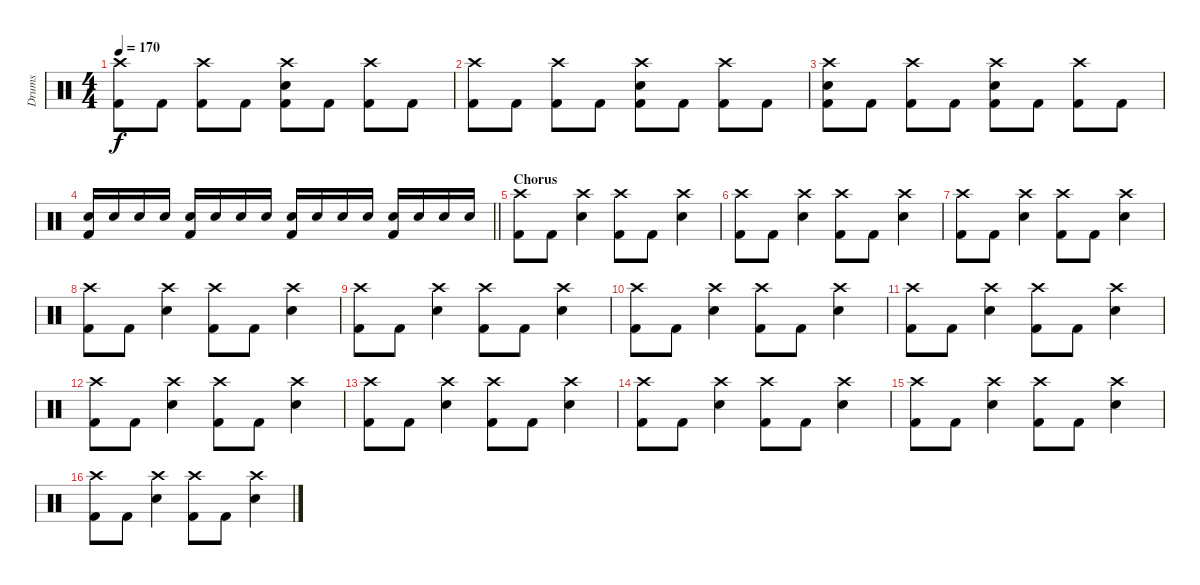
\track ("Drums" "Drums") {instrument percussion}
\staff {score}
\articulation defaults
\ts (4 4)
\tempo 170
\clef neutral
\ks c
("Crash high (hit)" "Kick (hit) 2").8{dy f} "Kick (hit) 2".8 ("Crash high (hit)" "Kick (hit) 2").8 "Kick (hit) 2".8 ("Electric Snare (hit)" "Crash high (hit)" "Kick (hit) 2").8 "Kick (hit) 2".8 ("Crash high (hit)" "Kick (hit) 2").8 "Kick (hit) 2".8 |
("Crash high (hit)" "Kick (hit) 2").8 "Kick (hit) 2".8 ("Crash high (hit)" "Kick (hit) 2").8 "Kick (hit) 2".8 ("Electric Snare (hit)" "Crash high (hit)" "Kick (hit) 2").8 "Kick (hit) 2".8 ("Crash high (hit)" "Kick (hit) 2").8 "Kick (hit) 2".8 |
("Electric Snare (hit)" "Crash high (hit)" "Kick (hit) 2").8 "Kick (hit) 2".8 ("Crash high (hit)" "Kick (hit) 2").8 "Kick (hit) 2".8 ("Electric Snare (hit)" "Crash high (hit)" "Kick (hit) 2").8 "Kick (hit) 2".8 ("Crash high (hit)" "Kick (hit) 2").8 "Kick (hit) 2".8 |
\barLineRight lightlight
("Electric Snare (hit)" "Kick (hit) 2").16 "Electric Snare (hit)".16 "Electric Snare (hit)".16 "Electric Snare (hit)".16 ("Electric Snare (hit)" "Kick (hit) 2").16 "Electric Snare (hit)".16 "Electric Snare (hit)".16 "Electric Snare (hit)".16 ("Electric Snare (hit)" "Kick (hit) 2").16 "Electric Snare (hit)".16 "Electric Snare (hit)".16 "Electric Snare (hit)".16 ("Electric Snare (hit)" "Kick (hit) 2").16 "Electric Snare (hit)".16 "Electric Snare (hit)".16 "Electric Snare (hit)".16 |
\section ("" "Chorus")
("Crash high (hit)" "Kick (hit) 2").8 "Kick (hit) 2".8 ("Electric Snare (hit)" "Crash high (hit)").4 ("Crash high (hit)" "Kick (hit) 2").8 "Kick (hit) 2".8 ("Electric Snare (hit)" "Crash high (hit)").4 |
("Crash high (hit)" "Kick (hit) 2").8 "Kick (hit) 2".8 ("Electric Snare (hit)" "Crash high (hit)").4 ("Crash high (hit)" "Kick (hit) 2").8 "Kick (hit) 2".8 ("Electric Snare (hit)" "Crash high (hit)").4 |
("Crash high (hit)" "Kick (hit) 2").8 "Kick (hit) 2".8 ("Electric Snare (hit)" "Crash high (hit)").4 ("Crash high (hit)" "Kick (hit) 2").8 "Kick (hit) 2".8 ("Electric Snare (hit)" "Crash high (hit)").4 |
("Crash high (hit)" "Kick (hit) 2").8 "Kick (hit) 2".8 ("Electric Snare (hit)" "Crash high (hit)").4 ("Crash high (hit)" "Kick (hit) 2").8 "Kick (hit) 2".8 ("Electric Snare (hit)" "Crash high (hit)").4 |
("Crash high (hit)" "Kick (hit) 2").8 "Kick (hit) 2".8 ("Electric Snare (hit)" "Crash high (hit)").4 ("Crash high (hit)" "Kick (hit) 2").8 "Kick (hit) 2".8 ("Electric Snare (hit)" "Crash high (hit)").4 |
("Crash high (hit)" "Kick (hit) 2").8 "Kick (hit) 2".8 ("Electric Snare (hit)" "Crash high (hit)").4 ("Crash high (hit)" "Kick (hit) 2").8 "Kick (hit) 2".8 ("Electric Snare (hit)" "Crash high (hit)").4 |
("Crash high (hit)" "Kick (hit) 2").8 "Kick (hit) 2".8 ("Electric Snare (hit)" "Crash high (hit)").4 ("Crash high (hit)" "Kick (hit) 2").8 "Kick (hit) 2".8 ("Electric Snare (hit)" "Crash high (hit)").4 |
("Crash high (hit)" "Kick (hit) 2").8 "Kick (hit) 2".8 ("Electric Snare (hit)" "Crash high (hit)").4 ("Crash high (hit)" "Kick (hit) 2").8 "Kick (hit) 2".8 ("Electric Snare (hit)" "Crash high (hit)").4 |
("Crash high (hit)" "Kick (hit) 2").8 "Kick (hit) 2".8 ("Electric Snare (hit)" "Crash high (hit)").4 ("Crash high (hit)" "Kick (hit) 2").8 "Kick (hit) 2".8 ("Electric Snare (hit)" "Crash high (hit)").4 |
("Crash high (hit)" "Kick (hit) 2").8 "Kick (hit) 2".8 ("Electric Snare (hit)" "Crash high (hit)").4 ("Crash high (hit)" "Kick (hit) 2").8 "Kick (hit) 2".8 ("Electric Snare (hit)" "Crash high (hit)").4 |
("Crash high (hit)" "Kick (hit) 2").8 "Kick (hit) 2".8 ("Electric Snare (hit)" "Crash high (hit)").4 ("Crash high (hit)" "Kick (hit) 2").8 "Kick (hit) 2".8 ("Electric Snare (hit)" "Crash high (hit)").4 |
("Crash high (hit)" "Kick (hit) 2").8 "Kick (hit) 2".8 ("Electric Snare (hit)" "Crash high (hit)").4 ("Crash high (hit)" "Kick (hit) 2").8 "Kick (hit) 2".8 ("Electric Snare (hit)" "Crash high (hit)").4
